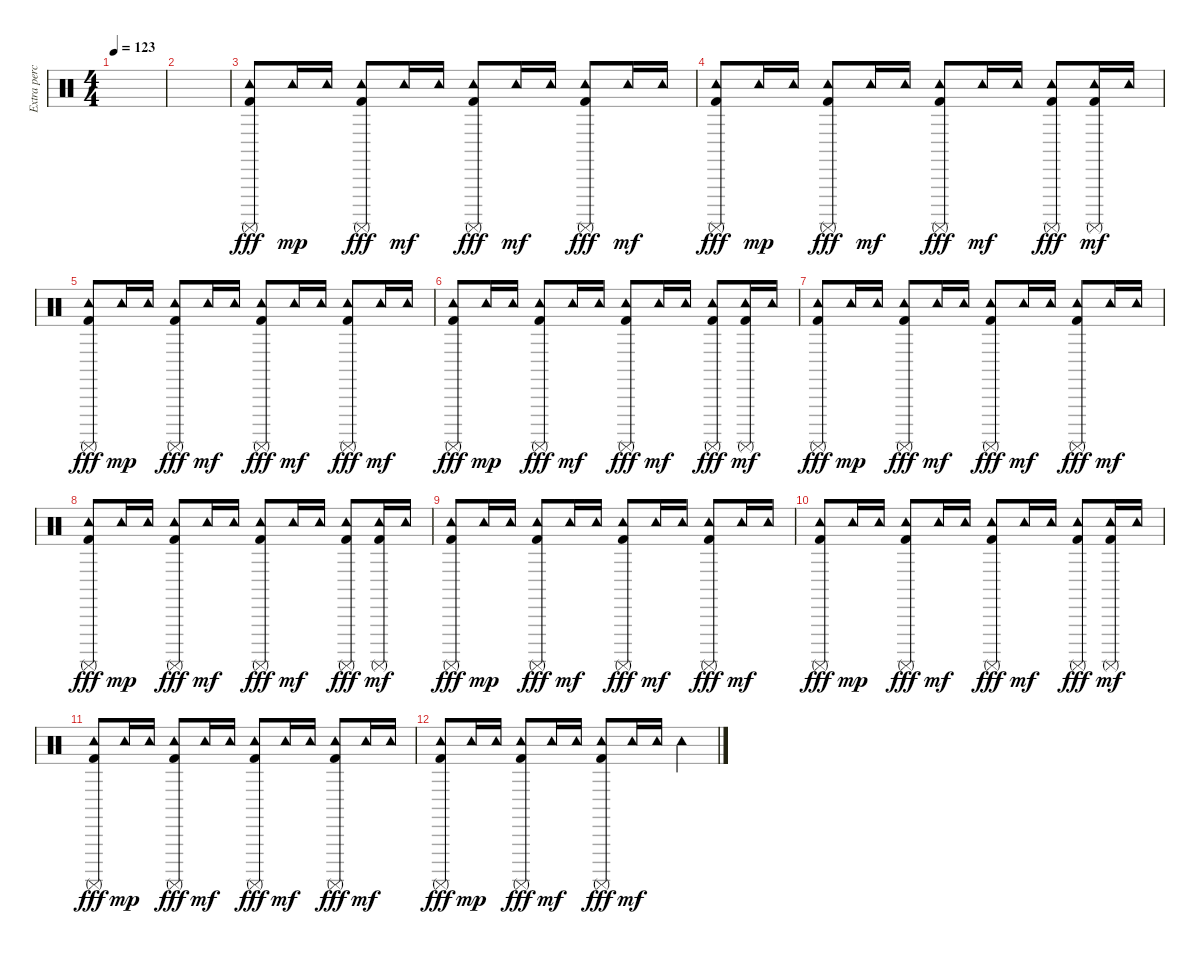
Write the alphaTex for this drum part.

\track ("Extra percussion" "Extra perc") {instrument percussion}
\staff {score}
\articulation defaults
\ts (4 4)
\tempo 123
\clef neutral
\ks c
|
|
("Tambourine (hit)" "Surdo (mute)" "Kick (hit) 2").8{dy fff} "Tambourine (hit)".16{dy mp} "Tambourine (hit)".16 ("Tambourine (hit)" "Surdo (mute)" "Kick (hit) 2").8{dy fff} "Tambourine (hit)".16{dy mf} "Tambourine (hit)".16 ("Tambourine (hit)" "Surdo (mute)" "Kick (hit) 2").8{dy fff} "Tambourine (hit)".16{dy mf} "Tambourine (hit)".16 ("Tambourine (hit)" "Surdo (mute)" "Kick (hit) 2").8{dy fff} "Tambourine (hit)".16{dy mf} "Tambourine (hit)".16 |
("Tambourine (hit)" "Surdo (mute)" "Kick (hit) 2").8{dy fff} "Tambourine (hit)".16{dy mp} "Tambourine (hit)".16 ("Tambourine (hit)" "Surdo (mute)" "Kick (hit) 2").8{dy fff} "Tambourine (hit)".16{dy mf} "Tambourine (hit)".16 ("Tambourine (hit)" "Surdo (mute)" "Kick (hit) 2").8{dy fff} "Tambourine (hit)".16{dy mf} "Tambourine (hit)".16 ("Tambourine (hit)" "Surdo (mute)" "Kick (hit) 2").8{dy fff} ("Tambourine (hit)" "Surdo (mute)" "Kick (hit) 2").16{dy mf} "Tambourine (hit)".16 |
("Tambourine (hit)" "Surdo (mute)" "Kick (hit) 2").8{dy fff} "Tambourine (hit)".16{dy mp} "Tambourine (hit)".16 ("Tambourine (hit)" "Surdo (mute)" "Kick (hit) 2").8{dy fff} "Tambourine (hit)".16{dy mf} "Tambourine (hit)".16 ("Tambourine (hit)" "Surdo (mute)" "Kick (hit) 2").8{dy fff} "Tambourine (hit)".16{dy mf} "Tambourine (hit)".16 ("Tambourine (hit)" "Surdo (mute)" "Kick (hit) 2").8{dy fff} "Tambourine (hit)".16{dy mf} "Tambourine (hit)".16 |
("Tambourine (hit)" "Surdo (mute)" "Kick (hit) 2").8{dy fff} "Tambourine (hit)".16{dy mp} "Tambourine (hit)".16 ("Tambourine (hit)" "Surdo (mute)" "Kick (hit) 2").8{dy fff} "Tambourine (hit)".16{dy mf} "Tambourine (hit)".16 ("Tambourine (hit)" "Surdo (mute)" "Kick (hit) 2").8{dy fff} "Tambourine (hit)".16{dy mf} "Tambourine (hit)".16 ("Tambourine (hit)" "Surdo (mute)" "Kick (hit) 2").8{dy fff} ("Tambourine (hit)" "Surdo (mute)" "Kick (hit) 2").16{dy mf} "Tambourine (hit)".16 |
("Tambourine (hit)" "Surdo (mute)" "Kick (hit) 2").8{dy fff} "Tambourine (hit)".16{dy mp} "Tambourine (hit)".16 ("Tambourine (hit)" "Surdo (mute)" "Kick (hit) 2").8{dy fff} "Tambourine (hit)".16{dy mf} "Tambourine (hit)".16 ("Tambourine (hit)" "Surdo (mute)" "Kick (hit) 2").8{dy fff} "Tambourine (hit)".16{dy mf} "Tambourine (hit)".16 ("Tambourine (hit)" "Surdo (mute)" "Kick (hit) 2").8{dy fff} "Tambourine (hit)".16{dy mf} "Tambourine (hit)".16 |
("Tambourine (hit)" "Surdo (mute)" "Kick (hit) 2").8{dy fff} "Tambourine (hit)".16{dy mp} "Tambourine (hit)".16 ("Tambourine (hit)" "Surdo (mute)" "Kick (hit) 2").8{dy fff} "Tambourine (hit)".16{dy mf} "Tambourine (hit)".16 ("Tambourine (hit)" "Surdo (mute)" "Kick (hit) 2").8{dy fff} "Tambourine (hit)".16{dy mf} "Tambourine (hit)".16 ("Tambourine (hit)" "Surdo (mute)" "Kick (hit) 2").8{dy fff} ("Tambourine (hit)" "Surdo (mute)" "Kick (hit) 2").16{dy mf} "Tambourine (hit)".16 |
("Tambourine (hit)" "Surdo (mute)" "Kick (hit) 2").8{dy fff} "Tambourine (hit)".16{dy mp} "Tambourine (hit)".16 ("Tambourine (hit)" "Surdo (mute)" "Kick (hit) 2").8{dy fff} "Tambourine (hit)".16{dy mf} "Tambourine (hit)".16 ("Tambourine (hit)" "Surdo (mute)" "Kick (hit) 2").8{dy fff} "Tambourine (hit)".16{dy mf} "Tambourine (hit)".16 ("Tambourine (hit)" "Surdo (mute)" "Kick (hit) 2").8{dy fff} "Tambourine (hit)".16{dy mf} "Tambourine (hit)".16 |
("Tambourine (hit)" "Surdo (mute)" "Kick (hit) 2").8{dy fff} "Tambourine (hit)".16{dy mp} "Tambourine (hit)".16 ("Tambourine (hit)" "Surdo (mute)" "Kick (hit) 2").8{dy fff} "Tambourine (hit)".16{dy mf} "Tambourine (hit)".16 ("Tambourine (hit)" "Surdo (mute)" "Kick (hit) 2").8{dy fff} "Tambourine (hit)".16{dy mf} "Tambourine (hit)".16 ("Tambourine (hit)" "Surdo (mute)" "Kick (hit) 2").8{dy fff} ("Tambourine (hit)" "Surdo (mute)" "Kick (hit) 2").16{dy mf} "Tambourine (hit)".16 |
("Tambourine (hit)" "Surdo (mute)" "Kick (hit) 2").8{dy fff} "Tambourine (hit)".16{dy mp} "Tambourine (hit)".16 ("Tambourine (hit)" "Surdo (mute)" "Kick (hit) 2").8{dy fff} "Tambourine (hit)".16{dy mf} "Tambourine (hit)".16 ("Tambourine (hit)" "Surdo (mute)" "Kick (hit) 2").8{dy fff} "Tambourine (hit)".16{dy mf} "Tambourine (hit)".16 ("Tambourine (hit)" "Surdo (mute)" "Kick (hit) 2").8{dy fff} "Tambourine (hit)".16{dy mf} "Tambourine (hit)".16 |
("Tambourine (hit)" "Surdo (mute)" "Kick (hit) 2").8{dy fff} "Tambourine (hit)".16{dy mp} "Tambourine (hit)".16 ("Tambourine (hit)" "Surdo (mute)" "Kick (hit) 2").8{dy fff} "Tambourine (hit)".16{dy mf} "Tambourine (hit)".16 ("Tambourine (hit)" "Surdo (mute)" "Kick (hit) 2").8{dy fff} "Tambourine (hit)".16{dy mf} "Tambourine (hit)".16 "Tambourine (hit)".4
